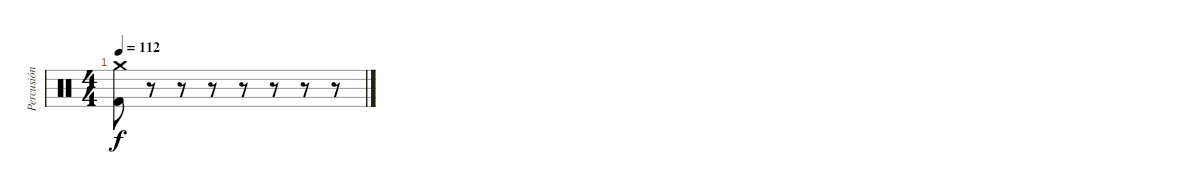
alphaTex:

\track ("Percusión" "Percusión") {instrument percussion}
\staff {score}
\articulation defaults
\ts (4 4)
\tempo 112
\clef neutral
\ks c
("Crash medium (hit)" "Kick (hit) 2").8{dy f} r.8 r.8 r.8 r.8 r.8 r.8 r.8
